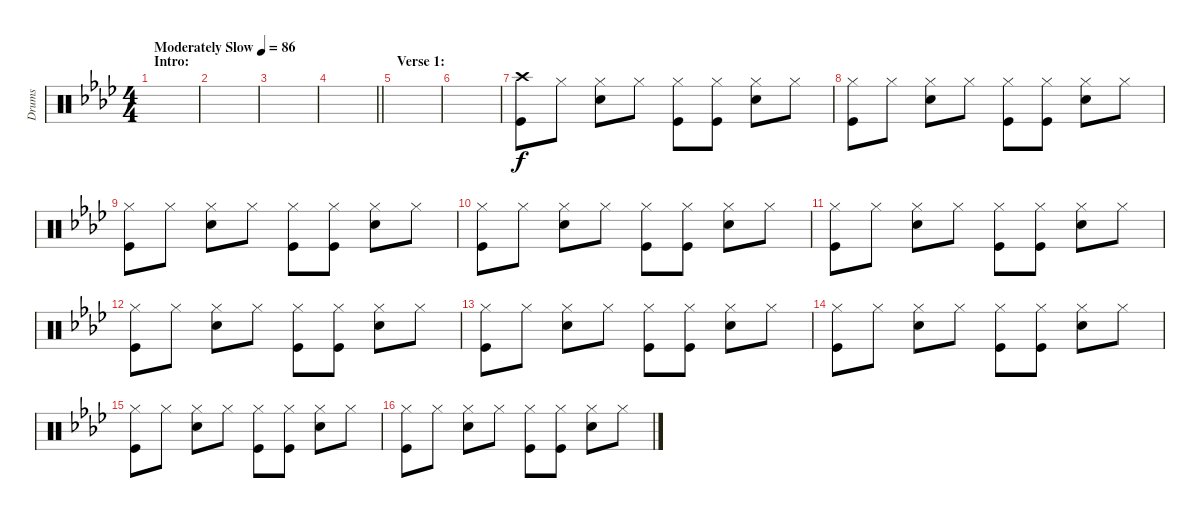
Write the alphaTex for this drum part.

\track ("Drums" "Drums") {instrument percussion}
\staff {score}
\articulation defaults
\ts (4 4)
\section ("" "Intro:")
\tempo (86 "Moderately Slow")
\clef neutral
\ks ab
|
|
|
\barLineRight lightlight
|
\section ("" "Verse 1:")
|
|
("Crash high (hit)" "Kick (hit)").8 "Hi-Hat (closed)".8 ("Hi-Hat (closed)" "Snare (hit) 2").8 "Hi-Hat (closed)".8 ("Hi-Hat (closed)" "Kick (hit)").8 ("Hi-Hat (closed)" "Kick (hit)").8 ("Hi-Hat (closed)" "Snare (hit) 2").8 "Hi-Hat (closed)".8 |
("Hi-Hat (closed)" "Kick (hit)").8 "Hi-Hat (closed)".8 ("Hi-Hat (closed)" "Snare (hit) 2").8 "Hi-Hat (closed)".8 ("Hi-Hat (closed)" "Kick (hit)").8 ("Hi-Hat (closed)" "Kick (hit)").8 ("Hi-Hat (closed)" "Snare (hit) 2").8 "Hi-Hat (closed)".8 |
("Hi-Hat (closed)" "Kick (hit)").8 "Hi-Hat (closed)".8 ("Hi-Hat (closed)" "Snare (hit) 2").8 "Hi-Hat (closed)".8 ("Hi-Hat (closed)" "Kick (hit)").8 ("Hi-Hat (closed)" "Kick (hit)").8 ("Hi-Hat (closed)" "Snare (hit) 2").8 "Hi-Hat (closed)".8 |
("Hi-Hat (closed)" "Kick (hit)").8 "Hi-Hat (closed)".8 ("Hi-Hat (closed)" "Snare (hit) 2").8 "Hi-Hat (closed)".8 ("Hi-Hat (closed)" "Kick (hit)").8 ("Hi-Hat (closed)" "Kick (hit)").8 ("Hi-Hat (closed)" "Snare (hit) 2").8 "Hi-Hat (closed)".8 |
("Hi-Hat (closed)" "Kick (hit)").8 "Hi-Hat (closed)".8 ("Hi-Hat (closed)" "Snare (hit) 2").8 "Hi-Hat (closed)".8 ("Hi-Hat (closed)" "Kick (hit)").8 ("Hi-Hat (closed)" "Kick (hit)").8 ("Hi-Hat (closed)" "Snare (hit) 2").8 "Hi-Hat (closed)".8 |
("Hi-Hat (closed)" "Kick (hit)").8 "Hi-Hat (closed)".8 ("Hi-Hat (closed)" "Snare (hit) 2").8 "Hi-Hat (closed)".8 ("Hi-Hat (closed)" "Kick (hit)").8 ("Hi-Hat (closed)" "Kick (hit)").8 ("Hi-Hat (closed)" "Snare (hit) 2").8 "Hi-Hat (closed)".8 |
("Hi-Hat (closed)" "Kick (hit)").8 "Hi-Hat (closed)".8 ("Hi-Hat (closed)" "Snare (hit) 2").8 "Hi-Hat (closed)".8 ("Hi-Hat (closed)" "Kick (hit)").8 ("Hi-Hat (closed)" "Kick (hit)").8 ("Hi-Hat (closed)" "Snare (hit) 2").8 "Hi-Hat (closed)".8 |
("Hi-Hat (closed)" "Kick (hit)").8 "Hi-Hat (closed)".8 ("Hi-Hat (closed)" "Snare (hit) 2").8 "Hi-Hat (closed)".8 ("Hi-Hat (closed)" "Kick (hit)").8 ("Hi-Hat (closed)" "Kick (hit)").8 ("Hi-Hat (closed)" "Snare (hit) 2").8 "Hi-Hat (closed)".8 |
("Hi-Hat (closed)" "Kick (hit)").8 "Hi-Hat (closed)".8 ("Hi-Hat (closed)" "Snare (hit) 2").8 "Hi-Hat (closed)".8 ("Hi-Hat (closed)" "Kick (hit)").8 ("Hi-Hat (closed)" "Kick (hit)").8 ("Hi-Hat (closed)" "Snare (hit) 2").8 "Hi-Hat (closed)".8 |
("Hi-Hat (closed)" "Kick (hit)").8 "Hi-Hat (closed)".8 ("Hi-Hat (closed)" "Snare (hit) 2").8 "Hi-Hat (closed)".8 ("Hi-Hat (closed)" "Kick (hit)").8 ("Hi-Hat (closed)" "Kick (hit)").8 ("Hi-Hat (closed)" "Snare (hit) 2").8 "Hi-Hat (closed)".8
